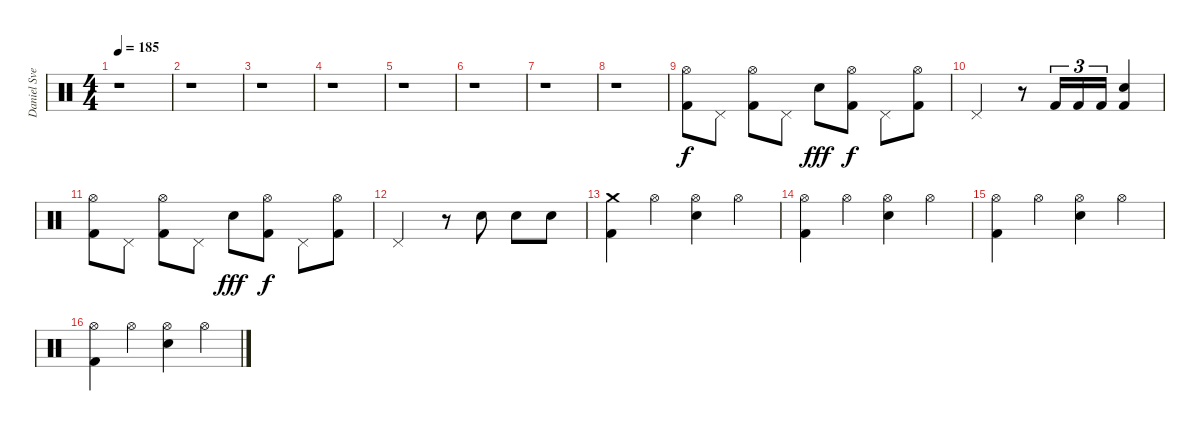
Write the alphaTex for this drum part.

\track ("Daniel Svensson" "Daniel Sve") {instrument percussion}
\staff {score}
\articulation defaults
\ts (4 4)
\tempo 185
\clef neutral
\ks c
r.1{dy f} |
r.1 |
r.1 |
r.1 |
r.1 |
r.1 |
r.1 |
r.1 |
("Kick (hit) 2" "Hi-Hat (open)").8 "Pedal Hi-Hat (hit)".8 ("Kick (hit) 2" "Hi-Hat (open)").8 "Pedal Hi-Hat (hit)".8 "Electric Snare (hit)".8{dy fff} ("Kick (hit) 2" "Hi-Hat (open)").8{dy f} "Pedal Hi-Hat (hit)".8 ("Kick (hit) 2" "Hi-Hat (open)").8 |
"Pedal Hi-Hat (hit)".2 r.8 "Kick (hit) 2".16{tu (3 2)} "Kick (hit) 2".16{tu (3 2)} "Kick (hit) 2".16{tu (3 2)} ("Kick (hit) 2" "Electric Snare (hit)").4 |
("Kick (hit) 2" "Hi-Hat (open)").8 "Pedal Hi-Hat (hit)".8 ("Kick (hit) 2" "Hi-Hat (open)").8 "Pedal Hi-Hat (hit)".8 "Electric Snare (hit)".8{dy fff} ("Kick (hit) 2" "Hi-Hat (open)").8{dy f} "Pedal Hi-Hat (hit)".8 ("Kick (hit) 2" "Hi-Hat (open)").8 |
"Pedal Hi-Hat (hit)".2 r.8 "Electric Snare (hit)".8 "Electric Snare (hit)".8 "Electric Snare (hit)".8 |
("Kick (hit) 2" "Crash medium (hit)").4 "Hi-Hat (open)".4 ("Electric Snare (hit)" "Hi-Hat (open)").4 "Hi-Hat (open)".4 |
("Kick (hit) 2" "Hi-Hat (open)").4 "Hi-Hat (open)".4 ("Electric Snare (hit)" "Hi-Hat (open)").4 "Hi-Hat (open)".4 |
("Kick (hit) 2" "Hi-Hat (open)").4 "Hi-Hat (open)".4 ("Electric Snare (hit)" "Hi-Hat (open)").4 "Hi-Hat (open)".4 |
("Kick (hit) 2" "Hi-Hat (open)").4 "Hi-Hat (open)".4 ("Electric Snare (hit)" "Hi-Hat (open)").4 "Hi-Hat (open)".4
